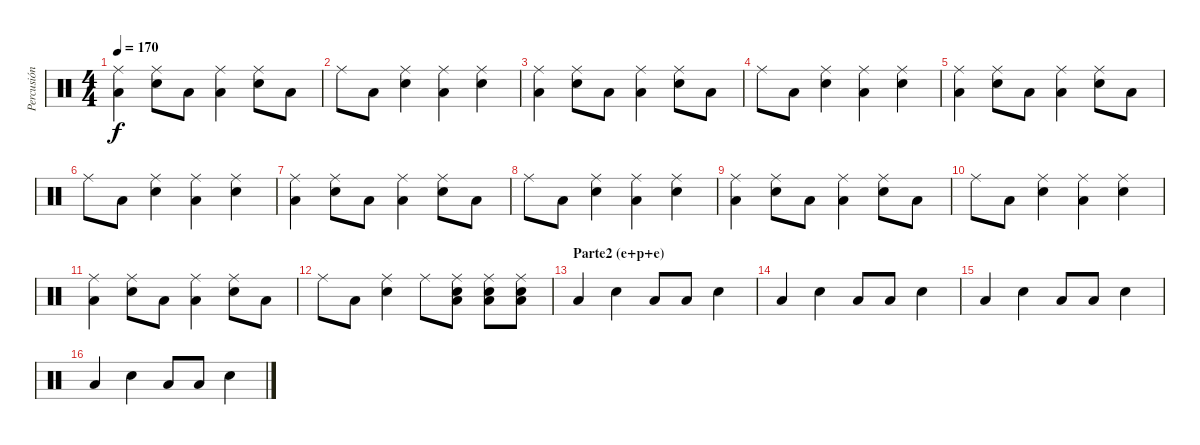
\track ("Percusión" "Percusión") {instrument percussion}
\staff {score}
\articulation defaults
\ts (4 4)
\tempo 170
\clef neutral
\ks c
("Low Floor Tom (hit)" "Ride (middle)").4{dy f} ("Snare (hit) 2" "Ride (middle)").8 "Low Floor Tom (hit)".8 ("Low Floor Tom (hit)" "Ride (middle)").4 ("Snare (hit) 2" "Ride (middle)").8 "Low Floor Tom (hit)".8 |
"Ride (middle)".8 "Low Floor Tom (hit)".8 ("Snare (hit) 2" "Ride (middle)").4 ("Low Floor Tom (hit)" "Ride (middle)").4 ("Snare (hit) 2" "Ride (middle)").4 |
("Low Floor Tom (hit)" "Ride (middle)").4 ("Snare (hit) 2" "Ride (middle)").8 "Low Floor Tom (hit)".8 ("Low Floor Tom (hit)" "Ride (middle)").4 ("Snare (hit) 2" "Ride (middle)").8 "Low Floor Tom (hit)".8 |
"Ride (middle)".8 "Low Floor Tom (hit)".8 ("Snare (hit) 2" "Ride (middle)").4 ("Low Floor Tom (hit)" "Ride (middle)").4 ("Snare (hit) 2" "Ride (middle)").4 |
("Low Floor Tom (hit)" "Ride (middle)").4 ("Snare (hit) 2" "Ride (middle)").8 "Low Floor Tom (hit)".8 ("Low Floor Tom (hit)" "Ride (middle)").4 ("Snare (hit) 2" "Ride (middle)").8 "Low Floor Tom (hit)".8 |
"Ride (middle)".8 "Low Floor Tom (hit)".8 ("Snare (hit) 2" "Ride (middle)").4 ("Low Floor Tom (hit)" "Ride (middle)").4 ("Snare (hit) 2" "Ride (middle)").4 |
("Low Floor Tom (hit)" "Ride (middle)").4 ("Snare (hit) 2" "Ride (middle)").8 "Low Floor Tom (hit)".8 ("Low Floor Tom (hit)" "Ride (middle)").4 ("Snare (hit) 2" "Ride (middle)").8 "Low Floor Tom (hit)".8 |
"Ride (middle)".8 "Low Floor Tom (hit)".8 ("Snare (hit) 2" "Ride (middle)").4 ("Low Floor Tom (hit)" "Ride (middle)").4 ("Snare (hit) 2" "Ride (middle)").4 |
("Low Floor Tom (hit)" "Ride (middle)").4 ("Snare (hit) 2" "Ride (middle)").8 "Low Floor Tom (hit)".8 ("Low Floor Tom (hit)" "Ride (middle)").4 ("Snare (hit) 2" "Ride (middle)").8 "Low Floor Tom (hit)".8 |
"Ride (middle)".8 "Low Floor Tom (hit)".8 ("Snare (hit) 2" "Ride (middle)").4 ("Low Floor Tom (hit)" "Ride (middle)").4 ("Snare (hit) 2" "Ride (middle)").4 |
("Low Floor Tom (hit)" "Ride (middle)").4 ("Snare (hit) 2" "Ride (middle)").8 "Low Floor Tom (hit)".8 ("Low Floor Tom (hit)" "Ride (middle)").4 ("Snare (hit) 2" "Ride (middle)").8 "Low Floor Tom (hit)".8 |
"Ride (middle)".8 "Low Floor Tom (hit)".8 ("Snare (hit) 2" "Ride (middle)").4 "Ride (middle)".8 ("Low Floor Tom (hit)" "Snare (hit) 2" "Ride (middle)").8 ("Low Floor Tom (hit)" "Snare (hit) 2" "Ride (middle)").8 ("Low Floor Tom (hit)" "Snare (hit) 2" "Ride (middle)").8 |
\section ("" "Parte2 (e+p+e)")
"Low Floor Tom (hit)".4 "Snare (hit) 2".4 "Low Floor Tom (hit)".8 "Low Floor Tom (hit)".8 "Snare (hit) 2".4 |
"Low Floor Tom (hit)".4 "Snare (hit) 2".4 "Low Floor Tom (hit)".8 "Low Floor Tom (hit)".8 "Snare (hit) 2".4 |
"Low Floor Tom (hit)".4 "Snare (hit) 2".4 "Low Floor Tom (hit)".8 "Low Floor Tom (hit)".8 "Snare (hit) 2".4 |
"Low Floor Tom (hit)".4 "Snare (hit) 2".4 "Low Floor Tom (hit)".8 "Low Floor Tom (hit)".8 "Snare (hit) 2".4
